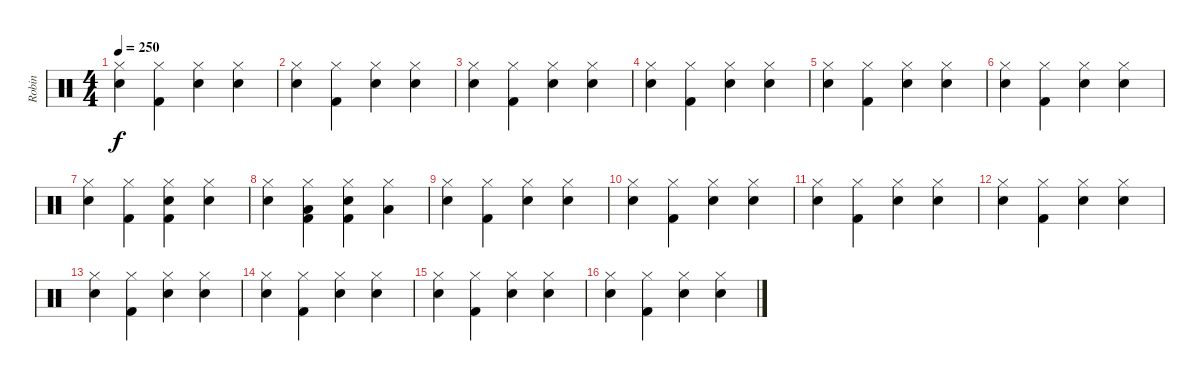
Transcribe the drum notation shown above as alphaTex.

\track ("Robin" "Robin") {instrument percussion}
\staff {score}
\articulation defaults
\ts (4 4)
\tempo 250
\clef neutral
\ks c
("Hi-Hat (closed)" "Snare (hit) 2").4{dy f} ("Hi-Hat (closed)" "Kick (hit) 2").4 ("Hi-Hat (closed)" "Snare (hit) 2").4 ("Hi-Hat (closed)" "Snare (hit) 2").4 |
("Hi-Hat (closed)" "Snare (hit) 2").4 ("Hi-Hat (closed)" "Kick (hit) 2").4 ("Hi-Hat (closed)" "Snare (hit) 2").4 ("Hi-Hat (closed)" "Snare (hit) 2").4 |
("Hi-Hat (closed)" "Snare (hit) 2").4 ("Hi-Hat (closed)" "Kick (hit) 2").4 ("Hi-Hat (closed)" "Snare (hit) 2").4 ("Hi-Hat (closed)" "Snare (hit) 2").4 |
("Hi-Hat (closed)" "Snare (hit) 2").4 ("Hi-Hat (closed)" "Kick (hit) 2").4 ("Hi-Hat (closed)" "Snare (hit) 2").4 ("Hi-Hat (closed)" "Snare (hit) 2").4 |
("Hi-Hat (closed)" "Snare (hit) 2").4 ("Hi-Hat (closed)" "Kick (hit) 2").4 ("Hi-Hat (closed)" "Snare (hit) 2").4 ("Hi-Hat (closed)" "Snare (hit) 2").4 |
("Hi-Hat (closed)" "Snare (hit) 2").4 ("Hi-Hat (closed)" "Kick (hit) 2").4 ("Hi-Hat (closed)" "Snare (hit) 2").4 ("Hi-Hat (closed)" "Snare (hit) 2").4 |
("Hi-Hat (closed)" "Snare (hit) 2").4 ("Hi-Hat (closed)" "Kick (hit) 2").4 ("Hi-Hat (closed)" "Kick (hit) 2" "Snare (hit) 2").4 ("Hi-Hat (closed)" "Snare (hit) 2").4 |
("Hi-Hat (closed)" "Snare (hit) 2").4 ("Hi-Hat (closed)" "Kick (hit) 2" "Low Floor Tom (hit)").4 ("Hi-Hat (closed)" "Kick (hit) 2" "Snare (hit) 2").4 ("Hi-Hat (closed)" "Low Floor Tom (hit)").4 |
("Hi-Hat (closed)" "Snare (hit) 2").4 ("Hi-Hat (closed)" "Kick (hit) 2").4 ("Hi-Hat (closed)" "Snare (hit) 2").4 ("Hi-Hat (closed)" "Snare (hit) 2").4 |
("Hi-Hat (closed)" "Snare (hit) 2").4 ("Hi-Hat (closed)" "Kick (hit) 2").4 ("Hi-Hat (closed)" "Snare (hit) 2").4 ("Hi-Hat (closed)" "Snare (hit) 2").4 |
("Hi-Hat (closed)" "Snare (hit) 2").4 ("Hi-Hat (closed)" "Kick (hit) 2").4 ("Hi-Hat (closed)" "Snare (hit) 2").4 ("Hi-Hat (closed)" "Snare (hit) 2").4 |
("Hi-Hat (closed)" "Snare (hit) 2").4 ("Hi-Hat (closed)" "Kick (hit) 2").4 ("Hi-Hat (closed)" "Snare (hit) 2").4 ("Hi-Hat (closed)" "Snare (hit) 2").4 |
("Hi-Hat (closed)" "Snare (hit) 2").4 ("Hi-Hat (closed)" "Kick (hit) 2").4 ("Hi-Hat (closed)" "Snare (hit) 2").4 ("Hi-Hat (closed)" "Snare (hit) 2").4 |
("Hi-Hat (closed)" "Snare (hit) 2").4 ("Hi-Hat (closed)" "Kick (hit) 2").4 ("Hi-Hat (closed)" "Snare (hit) 2").4 ("Hi-Hat (closed)" "Snare (hit) 2").4 |
("Hi-Hat (closed)" "Snare (hit) 2").4 ("Hi-Hat (closed)" "Kick (hit) 2").4 ("Hi-Hat (closed)" "Snare (hit) 2").4 ("Hi-Hat (closed)" "Snare (hit) 2").4 |
("Hi-Hat (closed)" "Snare (hit) 2").4 ("Hi-Hat (closed)" "Kick (hit) 2").4 ("Hi-Hat (closed)" "Snare (hit) 2").4 ("Hi-Hat (closed)" "Snare (hit) 2").4
